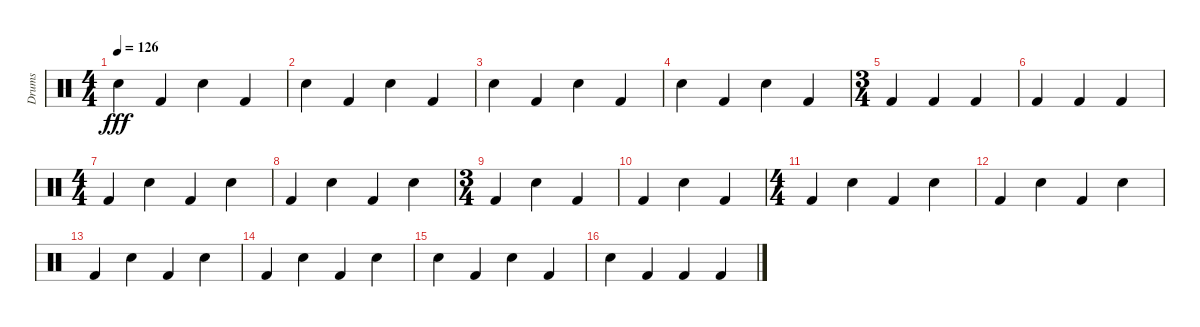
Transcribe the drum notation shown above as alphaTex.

\track ("Drums" "Drums") {instrument percussion}
\staff {score}
\articulation defaults
\ts (4 4)
\tempo 126
\clef neutral
\ks c "Snare (hit) 2".4{dy fff} "Kick (hit) 2".4 "Snare (hit) 2".4 "Kick (hit) 2".4
|
"Snare (hit) 2".4 "Kick (hit) 2".4 "Snare (hit) 2".4 "Kick (hit) 2".4 |
"Snare (hit) 2".4 "Kick (hit) 2".4 "Snare (hit) 2".4 "Kick (hit) 2".4 |
"Snare (hit) 2".4 "Kick (hit) 2".4 "Snare (hit) 2".4 "Kick (hit) 2".4 |
\ts (3 4)
"Kick (hit) 2".4 "Kick (hit) 2".4 "Kick (hit) 2".4 |
"Kick (hit) 2".4 "Kick (hit) 2".4 "Kick (hit) 2".4 |
\ts (4 4)
"Kick (hit) 2".4 "Snare (hit) 2".4 "Kick (hit) 2".4 "Snare (hit) 2".4 |
"Kick (hit) 2".4 "Snare (hit) 2".4 "Kick (hit) 2".4 "Snare (hit) 2".4 |
\ts (3 4)
"Kick (hit) 2".4 "Snare (hit) 2".4 "Kick (hit) 2".4 |
"Kick (hit) 2".4 "Snare (hit) 2".4 "Kick (hit) 2".4 |
\ts (4 4)
"Kick (hit) 2".4 "Snare (hit) 2".4 "Kick (hit) 2".4 "Snare (hit) 2".4 |
"Kick (hit) 2".4 "Snare (hit) 2".4 "Kick (hit) 2".4 "Snare (hit) 2".4 |
"Kick (hit) 2".4 "Snare (hit) 2".4 "Kick (hit) 2".4 "Snare (hit) 2".4 |
"Kick (hit) 2".4 "Snare (hit) 2".4 "Kick (hit) 2".4 "Snare (hit) 2".4 |
"Snare (hit) 2".4 "Kick (hit) 2".4 "Snare (hit) 2".4 "Kick (hit) 2".4 |
"Snare (hit) 2".4 "Kick (hit) 2".4 "Kick (hit) 2".4 "Kick (hit) 2".4
